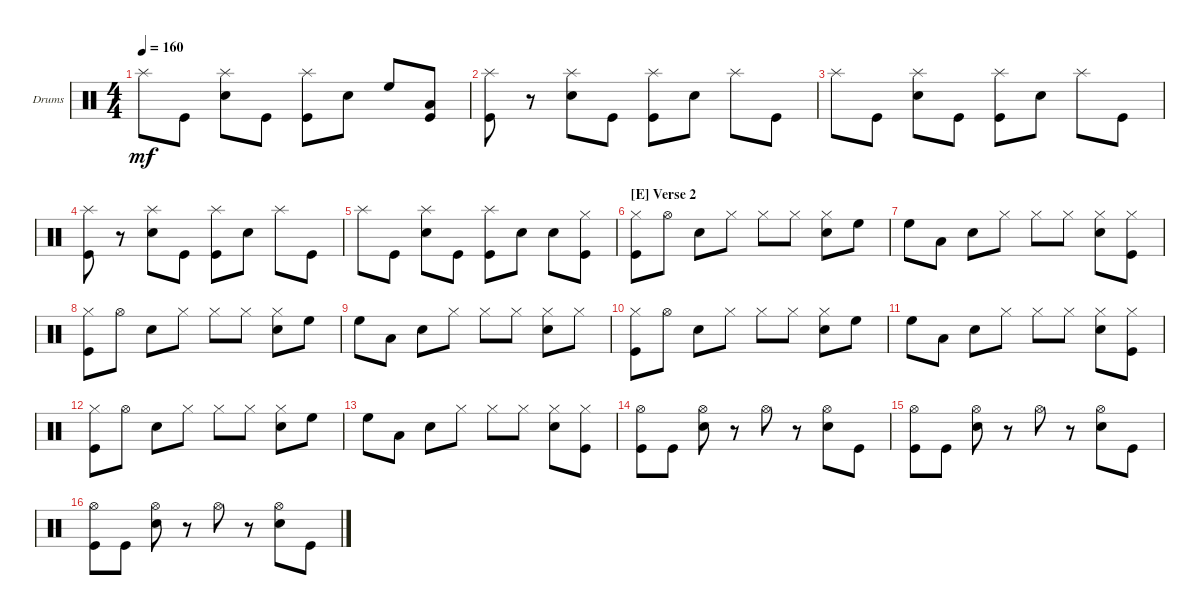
\bracketExtendMode groupsimilarinstruments
\firstSystemTrackNameOrientation horizontal
\otherSystemsTrackNameOrientation horizontal
\track ("Drumkit" "Drums") {instrument percussion}
\staff {score}
\articulation defaults
\ts (4 4)
\tempo 160
\clef neutral
\ks c "Splash (hit)".8{dy mf} "Kick (hit)".8
("Snare (hit) 2" "Splash (hit)").8 "Kick (hit)".8 ("Kick (hit)" "Splash (hit)").8 "Snare (hit) 2".8 "High Floor Tom (hit)".8 ("Kick (hit)" "Low Tom (hit)").8 |
("Kick (hit)" "Splash (hit)").8 r.8 ("Snare (hit) 2" "Splash (hit)").8 "Kick (hit)".8 ("Kick (hit)" "Splash (hit)").8 "Snare (hit) 2".8 "Splash (hit)".8 "Kick (hit)".8 |
"Splash (hit)".8 "Kick (hit)".8 ("Snare (hit) 2" "Splash (hit)").8 "Kick (hit)".8 ("Kick (hit)" "Splash (hit)").8 "Snare (hit) 2".8 "Splash (hit)".8 "Kick (hit)".8 |
("Kick (hit)" "Splash (hit)").8 r.8 ("Snare (hit) 2" "Splash (hit)").8 "Kick (hit)".8 ("Kick (hit)" "Splash (hit)").8 "Snare (hit) 2".8 "Splash (hit)".8 "Kick (hit)".8 |
"Splash (hit)".8 "Kick (hit)".8 ("Snare (hit) 2" "Splash (hit)").8 "Kick (hit)".8 ("Kick (hit)" "Splash (hit)").8 "Snare (hit) 2".8 "Snare (hit) 2".8 ("Kick (hit)" "Hi-Hat (closed)").8 |
\section ("E" "Verse 2")
("Kick (hit)" "Hi-Hat (closed)").8 "Hi-Hat (open)".8 "Snare (hit) 2".8 "Hi-Hat (closed)".8 "Hi-Hat (closed)".8 "Hi-Hat (closed)".8 ("Hi-Hat (closed)" "Snare (hit) 2").8 "High Floor Tom (hit)".8 |
"High Floor Tom (hit)".8 "Low Tom (hit)".8 "Snare (hit) 2".8 "Hi-Hat (closed)".8 "Hi-Hat (closed)".8 "Hi-Hat (closed)".8 ("Hi-Hat (closed)" "Snare (hit) 2").8 ("Hi-Hat (closed)" "Kick (hit)").8 |
("Kick (hit)" "Hi-Hat (closed)").8 "Hi-Hat (open)".8 "Snare (hit) 2".8 "Hi-Hat (closed)".8 "Hi-Hat (closed)".8 "Hi-Hat (closed)".8 ("Hi-Hat (closed)" "Snare (hit) 2").8 "High Floor Tom (hit)".8 |
"High Floor Tom (hit)".8 "Low Tom (hit)".8 "Snare (hit) 2".8 "Hi-Hat (closed)".8 "Hi-Hat (closed)".8 "Hi-Hat (closed)".8 ("Hi-Hat (closed)" "Snare (hit) 2").8 "Hi-Hat (closed)".8 |
("Kick (hit)" "Hi-Hat (closed)").8 "Hi-Hat (open)".8 "Snare (hit) 2".8 "Hi-Hat (closed)".8 "Hi-Hat (closed)".8 "Hi-Hat (closed)".8 ("Hi-Hat (closed)" "Snare (hit) 2").8 "High Floor Tom (hit)".8 |
"High Floor Tom (hit)".8 "Low Tom (hit)".8 "Snare (hit) 2".8 "Hi-Hat (closed)".8 "Hi-Hat (closed)".8 "Hi-Hat (closed)".8 ("Hi-Hat (closed)" "Snare (hit) 2").8 ("Hi-Hat (closed)" "Kick (hit)").8 |
("Kick (hit)" "Hi-Hat (closed)").8 "Hi-Hat (open)".8 "Snare (hit) 2".8 "Hi-Hat (closed)".8 "Hi-Hat (closed)".8 "Hi-Hat (closed)".8 ("Hi-Hat (closed)" "Snare (hit) 2").8 "High Floor Tom (hit)".8 |
"High Floor Tom (hit)".8 "Low Tom (hit)".8 "Snare (hit) 2".8 "Hi-Hat (closed)".8 "Hi-Hat (closed)".8 "Hi-Hat (closed)".8 ("Hi-Hat (closed)" "Snare (hit) 2").8 ("Hi-Hat (closed)" "Kick (hit)").8 |
("Kick (hit)" "Hi-Hat (open)").8 "Kick (hit)".8 ("Snare (hit) 2" "Hi-Hat (open)").8 r.8 "Hi-Hat (open)".8 r.8 ("Hi-Hat (open)" "Snare (hit) 2").8 "Kick (hit)".8 |
("Kick (hit)" "Hi-Hat (open)").8 "Kick (hit)".8 ("Snare (hit) 2" "Hi-Hat (open)").8 r.8 "Hi-Hat (open)".8 r.8 ("Hi-Hat (open)" "Snare (hit) 2").8 "Kick (hit)".8 |
("Kick (hit)" "Hi-Hat (open)").8 "Kick (hit)".8 ("Snare (hit) 2" "Hi-Hat (open)").8 r.8 "Hi-Hat (open)".8 r.8 ("Hi-Hat (open)" "Snare (hit) 2").8 "Kick (hit)".8
